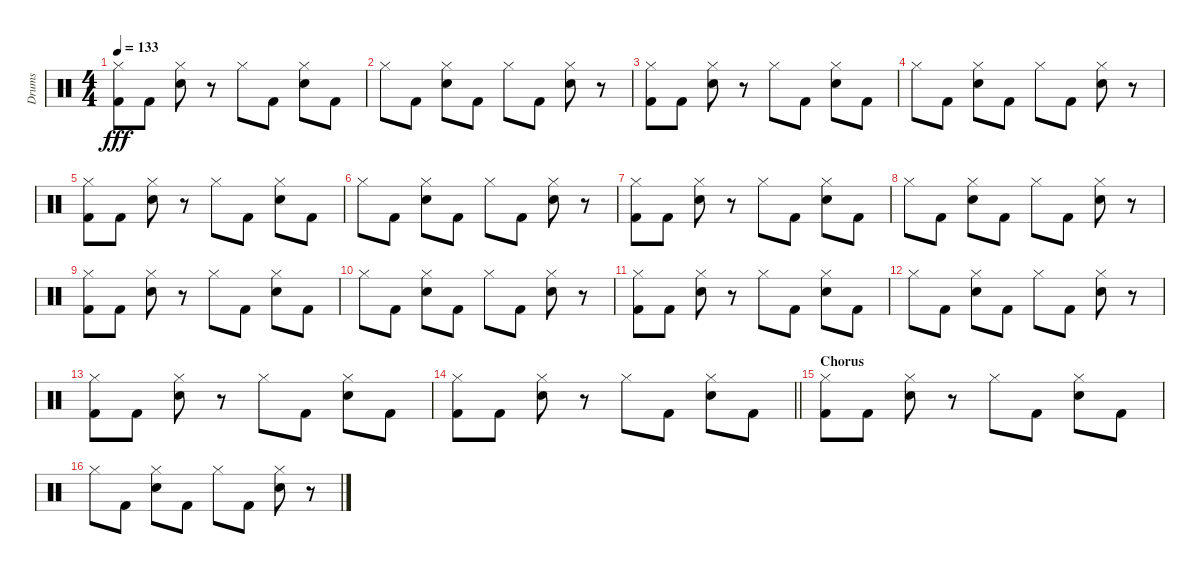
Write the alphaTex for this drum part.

\track ("Drums" "Drums") {instrument percussion}
\staff {score}
\articulation defaults
\ts (4 4)
\tempo 133
\clef neutral
\ks c
("Hi-Hat (closed)" "Kick (hit) 2").8{dy fff} "Kick (hit) 2".8 ("Hi-Hat (closed)" "Snare (hit) 2").8 r.8 "Hi-Hat (closed)".8 "Kick (hit) 2".8 ("Hi-Hat (closed)" "Snare (hit) 2").8 "Kick (hit) 2".8 |
"Hi-Hat (closed)".8 "Kick (hit) 2".8 ("Hi-Hat (closed)" "Snare (hit) 2").8 "Kick (hit) 2".8 "Hi-Hat (closed)".8 "Kick (hit) 2".8 ("Hi-Hat (closed)" "Snare (hit) 2").8 r.8 |
("Hi-Hat (closed)" "Kick (hit) 2").8 "Kick (hit) 2".8 ("Hi-Hat (closed)" "Snare (hit) 2").8 r.8 "Hi-Hat (closed)".8 "Kick (hit) 2".8 ("Hi-Hat (closed)" "Snare (hit) 2").8 "Kick (hit) 2".8 |
"Hi-Hat (closed)".8 "Kick (hit) 2".8 ("Hi-Hat (closed)" "Snare (hit) 2").8 "Kick (hit) 2".8 "Hi-Hat (closed)".8 "Kick (hit) 2".8 ("Hi-Hat (closed)" "Snare (hit) 2").8 r.8 |
("Hi-Hat (closed)" "Kick (hit) 2").8 "Kick (hit) 2".8 ("Hi-Hat (closed)" "Snare (hit) 2").8 r.8 "Hi-Hat (closed)".8 "Kick (hit) 2".8 ("Hi-Hat (closed)" "Snare (hit) 2").8 "Kick (hit) 2".8 |
"Hi-Hat (closed)".8 "Kick (hit) 2".8 ("Hi-Hat (closed)" "Snare (hit) 2").8 "Kick (hit) 2".8 "Hi-Hat (closed)".8 "Kick (hit) 2".8 ("Hi-Hat (closed)" "Snare (hit) 2").8 r.8 |
("Hi-Hat (closed)" "Kick (hit) 2").8 "Kick (hit) 2".8 ("Hi-Hat (closed)" "Snare (hit) 2").8 r.8 "Hi-Hat (closed)".8 "Kick (hit) 2".8 ("Hi-Hat (closed)" "Snare (hit) 2").8 "Kick (hit) 2".8 |
"Hi-Hat (closed)".8 "Kick (hit) 2".8 ("Hi-Hat (closed)" "Snare (hit) 2").8 "Kick (hit) 2".8 "Hi-Hat (closed)".8 "Kick (hit) 2".8 ("Hi-Hat (closed)" "Snare (hit) 2").8 r.8 |
("Hi-Hat (closed)" "Kick (hit) 2").8 "Kick (hit) 2".8 ("Hi-Hat (closed)" "Snare (hit) 2").8 r.8 "Hi-Hat (closed)".8 "Kick (hit) 2".8 ("Hi-Hat (closed)" "Snare (hit) 2").8 "Kick (hit) 2".8 |
"Hi-Hat (closed)".8 "Kick (hit) 2".8 ("Hi-Hat (closed)" "Snare (hit) 2").8 "Kick (hit) 2".8 "Hi-Hat (closed)".8 "Kick (hit) 2".8 ("Hi-Hat (closed)" "Snare (hit) 2").8 r.8 |
("Hi-Hat (closed)" "Kick (hit) 2").8 "Kick (hit) 2".8 ("Hi-Hat (closed)" "Snare (hit) 2").8 r.8 "Hi-Hat (closed)".8 "Kick (hit) 2".8 ("Hi-Hat (closed)" "Snare (hit) 2").8 "Kick (hit) 2".8 |
"Hi-Hat (closed)".8 "Kick (hit) 2".8 ("Hi-Hat (closed)" "Snare (hit) 2").8 "Kick (hit) 2".8 "Hi-Hat (closed)".8 "Kick (hit) 2".8 ("Hi-Hat (closed)" "Snare (hit) 2").8 r.8 |
("Hi-Hat (closed)" "Kick (hit) 2").8 "Kick (hit) 2".8 ("Hi-Hat (closed)" "Snare (hit) 2").8 r.8 "Hi-Hat (closed)".8 "Kick (hit) 2".8 ("Hi-Hat (closed)" "Snare (hit) 2").8 "Kick (hit) 2".8 |
\barLineRight lightlight
("Hi-Hat (closed)" "Kick (hit) 2").8 "Kick (hit) 2".8 ("Hi-Hat (closed)" "Snare (hit) 2").8 r.8 "Hi-Hat (closed)".8 "Kick (hit) 2".8 ("Hi-Hat (closed)" "Snare (hit) 2").8 "Kick (hit) 2".8 |
\section ("" "Chorus")
("Hi-Hat (closed)" "Kick (hit) 2").8 "Kick (hit) 2".8 ("Hi-Hat (closed)" "Snare (hit) 2").8 r.8 "Hi-Hat (closed)".8 "Kick (hit) 2".8 ("Hi-Hat (closed)" "Snare (hit) 2").8 "Kick (hit) 2".8 |
"Hi-Hat (closed)".8 "Kick (hit) 2".8 ("Hi-Hat (closed)" "Snare (hit) 2").8 "Kick (hit) 2".8 "Hi-Hat (closed)".8 "Kick (hit) 2".8 ("Hi-Hat (closed)" "Snare (hit) 2").8 r.8
